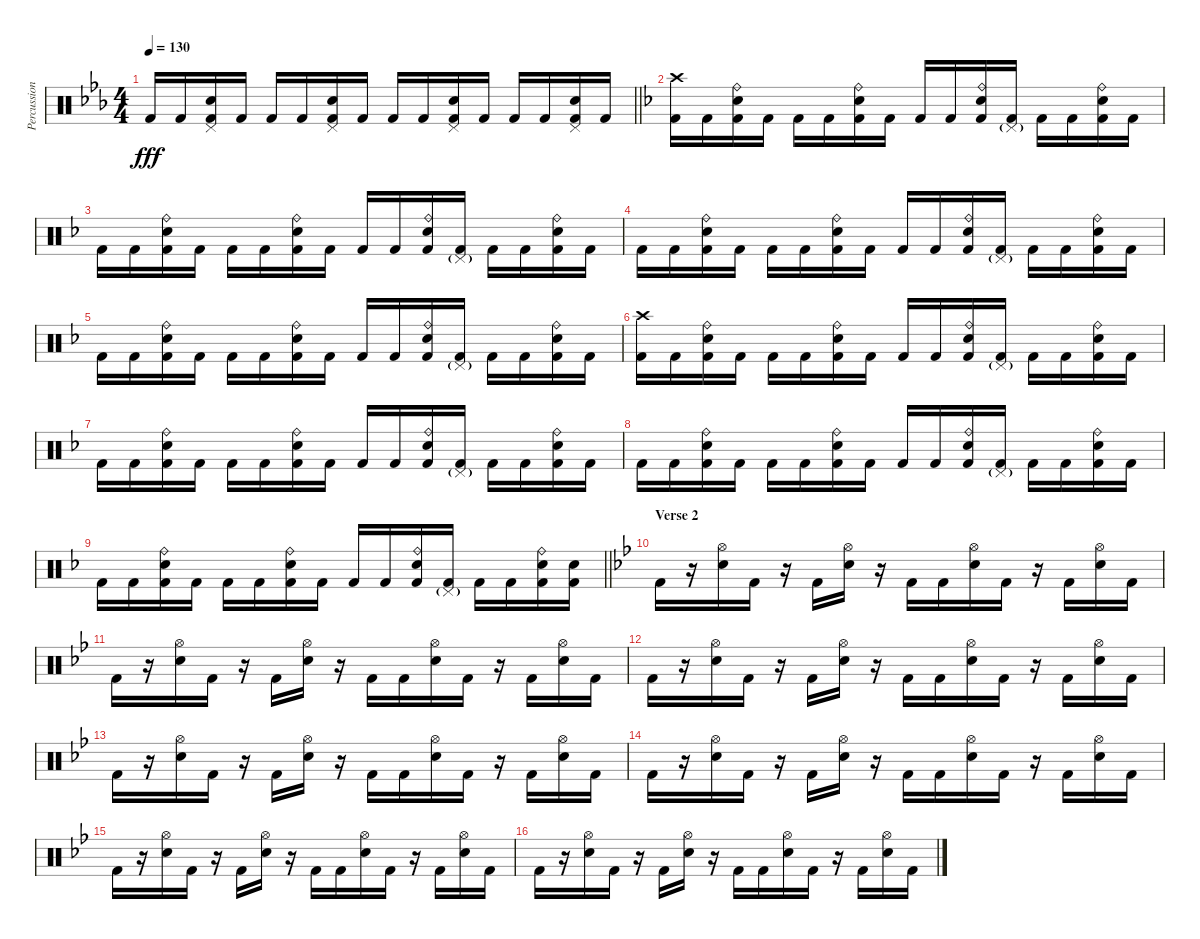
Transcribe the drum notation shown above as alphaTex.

\track ("Percussion" "Percussion") {instrument percussion}
\staff {score}
\articulation defaults
\ts (4 4)
\tempo 130
\clef neutral
\barLineRight lightlight
\ks cminor "Kick (hit) 2".16{dy fff} "Kick (hit) 2".16
("Pedal Hi-Hat (hit)" "Electric Snare (hit)" "Kick (hit) 2").16 "Kick (hit) 2".16 "Kick (hit) 2".16 "Kick (hit) 2".16 ("Pedal Hi-Hat (hit)" "Electric Snare (hit)" "Kick (hit) 2").16 "Kick (hit) 2".16 "Kick (hit) 2".16 "Kick (hit) 2".16 ("Pedal Hi-Hat (hit)" "Electric Snare (hit)" "Kick (hit) 2").16 "Kick (hit) 2".16 "Kick (hit) 2".16 "Kick (hit) 2".16 ("Pedal Hi-Hat (hit)" "Electric Snare (hit)" "Kick (hit) 2").16 "Kick (hit) 2".16 |
\section ("" "")
\ks dminor
("Crash high (hit)" "Kick (hit) 2").16 "Kick (hit) 2".16 ("Ride (bell)" "Electric Snare (hit)" "Kick (hit) 2").16 "Kick (hit) 2".16 "Kick (hit) 2".16 "Kick (hit) 2".16 ("Ride (bell)" "Electric Snare (hit)" "Kick (hit) 2").16 "Kick (hit) 2".16 "Kick (hit) 2".16 "Kick (hit) 2".16 ("Ride (bell)" "Electric Snare (hit)" "Kick (hit) 2").16 ("Pedal Hi-Hat (hit)"{g} "Kick (hit) 2").16 "Kick (hit) 2".16 "Kick (hit) 2".16 ("Ride (bell)" "Electric Snare (hit)" "Kick (hit) 2").16 "Kick (hit) 2".16 |
"Kick (hit) 2".16 "Kick (hit) 2".16 ("Ride (bell)" "Electric Snare (hit)" "Kick (hit) 2").16 "Kick (hit) 2".16 "Kick (hit) 2".16 "Kick (hit) 2".16 ("Ride (bell)" "Electric Snare (hit)" "Kick (hit) 2").16 "Kick (hit) 2".16 "Kick (hit) 2".16 "Kick (hit) 2".16 ("Ride (bell)" "Electric Snare (hit)" "Kick (hit) 2").16 ("Pedal Hi-Hat (hit)"{g} "Kick (hit) 2").16 "Kick (hit) 2".16 "Kick (hit) 2".16 ("Ride (bell)" "Electric Snare (hit)" "Kick (hit) 2").16 "Kick (hit) 2".16 |
"Kick (hit) 2".16 "Kick (hit) 2".16 ("Ride (bell)" "Electric Snare (hit)" "Kick (hit) 2").16 "Kick (hit) 2".16 "Kick (hit) 2".16 "Kick (hit) 2".16 ("Ride (bell)" "Electric Snare (hit)" "Kick (hit) 2").16 "Kick (hit) 2".16 "Kick (hit) 2".16 "Kick (hit) 2".16 ("Ride (bell)" "Electric Snare (hit)" "Kick (hit) 2").16 ("Pedal Hi-Hat (hit)"{g} "Kick (hit) 2").16 "Kick (hit) 2".16 "Kick (hit) 2".16 ("Ride (bell)" "Electric Snare (hit)" "Kick (hit) 2").16 "Kick (hit) 2".16 |
"Kick (hit) 2".16 "Kick (hit) 2".16 ("Ride (bell)" "Electric Snare (hit)" "Kick (hit) 2").16 "Kick (hit) 2".16 "Kick (hit) 2".16 "Kick (hit) 2".16 ("Ride (bell)" "Electric Snare (hit)" "Kick (hit) 2").16 "Kick (hit) 2".16 "Kick (hit) 2".16 "Kick (hit) 2".16 ("Ride (bell)" "Electric Snare (hit)" "Kick (hit) 2").16 ("Pedal Hi-Hat (hit)"{g} "Kick (hit) 2").16 "Kick (hit) 2".16 "Kick (hit) 2".16 ("Ride (bell)" "Electric Snare (hit)" "Kick (hit) 2").16 "Kick (hit) 2".16 |
("Crash high (hit)" "Kick (hit) 2").16 "Kick (hit) 2".16 ("Ride (bell)" "Electric Snare (hit)" "Kick (hit) 2").16 "Kick (hit) 2".16 "Kick (hit) 2".16 "Kick (hit) 2".16 ("Ride (bell)" "Electric Snare (hit)" "Kick (hit) 2").16 "Kick (hit) 2".16 "Kick (hit) 2".16 "Kick (hit) 2".16 ("Ride (bell)" "Electric Snare (hit)" "Kick (hit) 2").16 ("Pedal Hi-Hat (hit)"{g} "Kick (hit) 2").16 "Kick (hit) 2".16 "Kick (hit) 2".16 ("Ride (bell)" "Electric Snare (hit)" "Kick (hit) 2").16 "Kick (hit) 2".16 |
"Kick (hit) 2".16 "Kick (hit) 2".16 ("Ride (bell)" "Electric Snare (hit)" "Kick (hit) 2").16 "Kick (hit) 2".16 "Kick (hit) 2".16 "Kick (hit) 2".16 ("Ride (bell)" "Electric Snare (hit)" "Kick (hit) 2").16 "Kick (hit) 2".16 "Kick (hit) 2".16 "Kick (hit) 2".16 ("Ride (bell)" "Electric Snare (hit)" "Kick (hit) 2").16 ("Pedal Hi-Hat (hit)"{g} "Kick (hit) 2").16 "Kick (hit) 2".16 "Kick (hit) 2".16 ("Ride (bell)" "Electric Snare (hit)" "Kick (hit) 2").16 "Kick (hit) 2".16 |
"Kick (hit) 2".16 "Kick (hit) 2".16 ("Ride (bell)" "Electric Snare (hit)" "Kick (hit) 2").16 "Kick (hit) 2".16 "Kick (hit) 2".16 "Kick (hit) 2".16 ("Ride (bell)" "Electric Snare (hit)" "Kick (hit) 2").16 "Kick (hit) 2".16 "Kick (hit) 2".16 "Kick (hit) 2".16 ("Ride (bell)" "Electric Snare (hit)" "Kick (hit) 2").16 ("Pedal Hi-Hat (hit)"{g} "Kick (hit) 2").16 "Kick (hit) 2".16 "Kick (hit) 2".16 ("Ride (bell)" "Electric Snare (hit)" "Kick (hit) 2").16 "Kick (hit) 2".16 |
\barLineRight lightlight "Kick (hit) 2".16 "Kick (hit) 2".16
("Ride (bell)" "Electric Snare (hit)" "Kick (hit) 2").16 "Kick (hit) 2".16 "Kick (hit) 2".16 "Kick (hit) 2".16 ("Ride (bell)" "Electric Snare (hit)" "Kick (hit) 2").16 "Kick (hit) 2".16 "Kick (hit) 2".16 "Kick (hit) 2".16 ("Ride (bell)" "Electric Snare (hit)" "Kick (hit) 2").16 ("Pedal Hi-Hat (hit)"{g} "Kick (hit) 2").16 "Kick (hit) 2".16 "Kick (hit) 2".16 ("Ride (bell)" "Electric Snare (hit)" "Kick (hit) 2").16 ("Electric Snare (hit)" "Kick (hit) 2").16 |
\section ("" "Verse 2")
\ks gminor "Kick (hit) 2".16
r.16 ("Hi-Hat (open)" "Electric Snare (hit)").16 "Kick (hit) 2".16 r.16 "Kick (hit) 2".16 ("Hi-Hat (open)" "Electric Snare (hit)").16 r.16 "Kick (hit) 2".16 "Kick (hit) 2".16 ("Hi-Hat (open)" "Electric Snare (hit)").16 "Kick (hit) 2".16 r.16 "Kick (hit) 2".16 ("Hi-Hat (open)" "Electric Snare (hit)").16 "Kick (hit) 2".16 |
"Kick (hit) 2".16 r.16 ("Hi-Hat (open)" "Electric Snare (hit)").16 "Kick (hit) 2".16 r.16 "Kick (hit) 2".16 ("Hi-Hat (open)" "Electric Snare (hit)").16 r.16 "Kick (hit) 2".16 "Kick (hit) 2".16 ("Hi-Hat (open)" "Electric Snare (hit)").16 "Kick (hit) 2".16 r.16 "Kick (hit) 2".16 ("Hi-Hat (open)" "Electric Snare (hit)").16 "Kick (hit) 2".16 |
"Kick (hit) 2".16 r.16 ("Hi-Hat (open)" "Electric Snare (hit)").16 "Kick (hit) 2".16 r.16 "Kick (hit) 2".16 ("Hi-Hat (open)" "Electric Snare (hit)").16 r.16 "Kick (hit) 2".16 "Kick (hit) 2".16 ("Hi-Hat (open)" "Electric Snare (hit)").16 "Kick (hit) 2".16 r.16 "Kick (hit) 2".16 ("Hi-Hat (open)" "Electric Snare (hit)").16 "Kick (hit) 2".16 |
"Kick (hit) 2".16 r.16 ("Hi-Hat (open)" "Electric Snare (hit)").16 "Kick (hit) 2".16 r.16 "Kick (hit) 2".16 ("Hi-Hat (open)" "Electric Snare (hit)").16 r.16 "Kick (hit) 2".16 "Kick (hit) 2".16 ("Hi-Hat (open)" "Electric Snare (hit)").16 "Kick (hit) 2".16 r.16 "Kick (hit) 2".16 ("Hi-Hat (open)" "Electric Snare (hit)").16 "Kick (hit) 2".16 |
"Kick (hit) 2".16 r.16 ("Hi-Hat (open)" "Electric Snare (hit)").16 "Kick (hit) 2".16 r.16 "Kick (hit) 2".16 ("Hi-Hat (open)" "Electric Snare (hit)").16 r.16 "Kick (hit) 2".16 "Kick (hit) 2".16 ("Hi-Hat (open)" "Electric Snare (hit)").16 "Kick (hit) 2".16 r.16 "Kick (hit) 2".16 ("Hi-Hat (open)" "Electric Snare (hit)").16 "Kick (hit) 2".16 |
"Kick (hit) 2".16 r.16 ("Hi-Hat (open)" "Electric Snare (hit)").16 "Kick (hit) 2".16 r.16 "Kick (hit) 2".16 ("Hi-Hat (open)" "Electric Snare (hit)").16 r.16 "Kick (hit) 2".16 "Kick (hit) 2".16 ("Hi-Hat (open)" "Electric Snare (hit)").16 "Kick (hit) 2".16 r.16 "Kick (hit) 2".16 ("Hi-Hat (open)" "Electric Snare (hit)").16 "Kick (hit) 2".16 |
"Kick (hit) 2".16 r.16 ("Hi-Hat (open)" "Electric Snare (hit)").16 "Kick (hit) 2".16 r.16 "Kick (hit) 2".16 ("Hi-Hat (open)" "Electric Snare (hit)").16 r.16 "Kick (hit) 2".16 "Kick (hit) 2".16 ("Hi-Hat (open)" "Electric Snare (hit)").16 "Kick (hit) 2".16 r.16 "Kick (hit) 2".16 ("Hi-Hat (open)" "Electric Snare (hit)").16 "Kick (hit) 2".16
